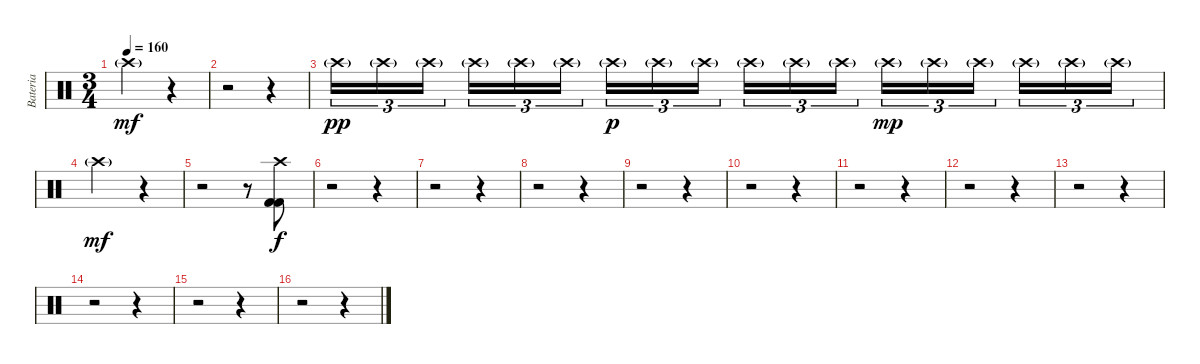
\track ("Bateria" "Bateria") {instrument percussion}
\staff {score}
\articulation defaults
\ts (3 4)
\tempo 160
\clef neutral
\ks c "Crash high (hit)"{g}.2{dy mf}
r.4 |
r.2 r.4 |
"Crash high (hit)"{g}.16{tu (3 2) dy pp} "Crash high (hit)"{g}.16{tu (3 2)} "Crash high (hit)"{g}.16{tu (3 2)} "Crash high (hit)"{g}.16{tu (3 2)} "Crash high (hit)"{g}.16{tu (3 2)} "Crash high (hit)"{g}.16{tu (3 2)} "Crash high (hit)"{g}.16{tu (3 2) dy p} "Crash high (hit)"{g}.16{tu (3 2)} "Crash high (hit)"{g}.16{tu (3 2)} "Crash high (hit)"{g}.16{tu (3 2)} "Crash high (hit)"{g}.16{tu (3 2)} "Crash high (hit)"{g}.16{tu (3 2)} "Crash high (hit)"{g}.16{tu (3 2) dy mp} "Crash high (hit)"{g}.16{tu (3 2)} "Crash high (hit)"{g}.16{tu (3 2)} "Crash high (hit)"{g}.16{tu (3 2)} "Crash high (hit)"{g}.16{tu (3 2)} "Crash high (hit)"{g}.16{tu (3 2)} |
"Crash high (hit)"{g}.2{dy mf} r.4 |
r.2 r.8 ("Kick (hit) 2" "Kick (hit) 2" "Crash high (hit)").8{dy f} |
r.2 r.4 |
r.2 r.4 |
r.2 r.4 |
r.2 r.4 |
r.2 r.4 |
r.2 r.4 |
r.2 r.4 |
r.2 r.4 |
r.2 r.4 |
r.2 r.4 |
r.2 r.4
